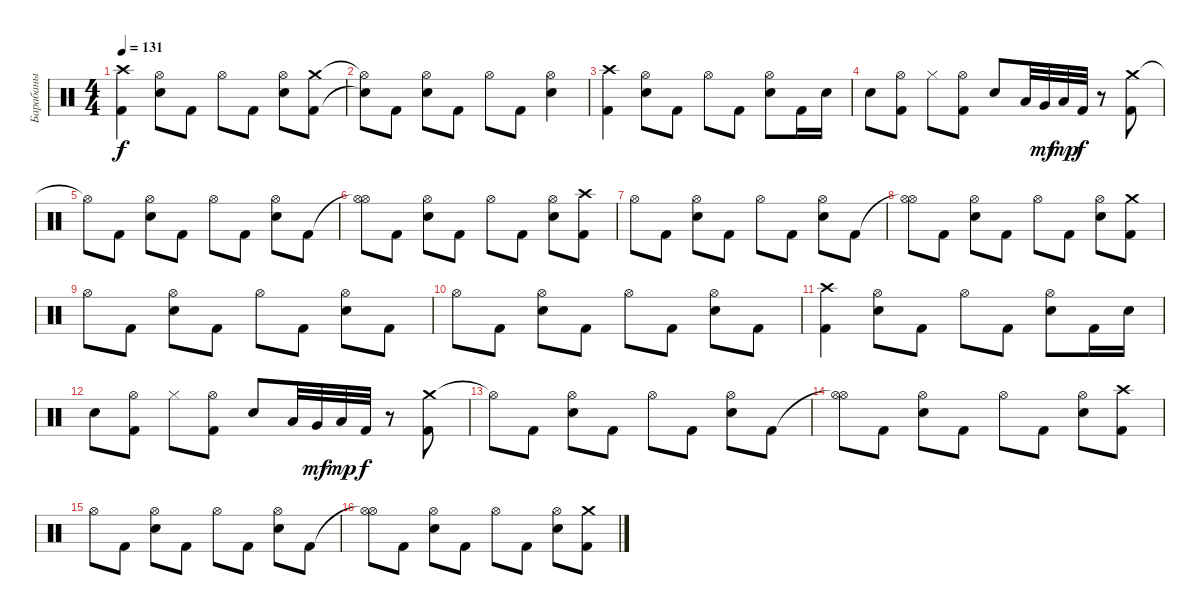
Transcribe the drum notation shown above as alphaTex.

\track ("Барабаны" "Барабаны") {instrument percussion}
\staff {score}
\articulation defaults
\ts (4 4)
\tempo 131
\clef neutral
\ks c
("Crash high (hit)" "Kick (hit) 2").4{dy f} ("Hi-Hat (open)" "Snare (hit) 2").8 "Kick (hit) 2".8 "Hi-Hat (open)".8 "Kick (hit) 2".8 ("Hi-Hat (open)" "Snare (hit) 2").8 ("Crash medium (hit)" "Kick (hit) 2").8 |
("Hi-Hat (open)"{t} "Snare (hit)"{t}).8 "Kick (hit) 2".8 ("Snare (hit) 2" "Hi-Hat (open)").8 "Kick (hit) 2".8 "Hi-Hat (open)".8 "Kick (hit) 2".8 ("Hi-Hat (open)" "Snare (hit) 2").4 |
("Crash high (hit)" "Kick (hit) 2").4 ("Hi-Hat (open)" "Snare (hit) 2").8 "Kick (hit) 2".8 "Hi-Hat (open)".8 "Kick (hit) 2".8 ("Hi-Hat (open)" "Snare (hit) 2").8 "Kick (hit) 2".16 "Snare (hit) 2".16 |
"Snare (hit) 2".8 ("Hi-Hat (open)" "Kick (hit) 2").8 "Hi-Hat (closed)".8 ("Hi-Hat (open)" "Kick (hit) 2").8 "Electric Snare (hit)".8 "Low Tom (hit)".32 "Very Low Tom (hit)".32{dy mf} "Low Floor Tom (hit)".32{dy mp} "Kick (hit) 2".32{dy f} r.8 ("Crash medium (hit)" "Kick (hit) 2").8 |
"Hi-Hat (open)"{t}.8 "Kick (hit) 2".8 ("Snare (hit) 2" "Hi-Hat (open)").8 "Kick (hit) 2".8 "Hi-Hat (open)".8 "Kick (hit) 2".8 ("Hi-Hat (open)" "Snare (hit) 2").8 "Kick (hit) 2".8 |
("Hi-Hat (open)"{t} "Hi-Hat (open)").8 "Kick (hit) 2".8 ("Snare (hit) 2" "Hi-Hat (open)").8 "Kick (hit) 2".8 "Hi-Hat (open)".8 "Kick (hit) 2".8 ("Hi-Hat (open)" "Snare (hit) 2").8 ("Crash high (hit)" "Kick (hit) 2").8 |
"Hi-Hat (open)".8 "Kick (hit) 2".8 ("Snare (hit) 2" "Hi-Hat (open)").8 "Kick (hit) 2".8 "Hi-Hat (open)".8 "Kick (hit) 2".8 ("Hi-Hat (open)" "Snare (hit) 2").8 "Kick (hit) 2".8 |
("Hi-Hat (open)"{t} "Hi-Hat (open)").8 "Kick (hit) 2".8 ("Snare (hit) 2" "Hi-Hat (open)").8 "Kick (hit) 2".8 "Hi-Hat (open)".8 "Kick (hit) 2".8 ("Hi-Hat (open)" "Snare (hit) 2").8 ("Crash medium (hit)" "Kick (hit) 2").8 |
"Hi-Hat (open)".8 "Kick (hit) 2".8 ("Snare (hit) 2" "Hi-Hat (open)").8 "Kick (hit) 2".8 "Hi-Hat (open)".8 "Kick (hit) 2".8 ("Hi-Hat (open)" "Snare (hit) 2").8 "Kick (hit) 2".8 |
"Hi-Hat (open)".8 "Kick (hit) 2".8 ("Snare (hit) 2" "Hi-Hat (open)").8 "Kick (hit) 2".8 "Hi-Hat (open)".8 "Kick (hit) 2".8 ("Hi-Hat (open)" "Snare (hit) 2").8 "Kick (hit) 2".8 |
("Crash high (hit)" "Kick (hit) 2").4 ("Hi-Hat (open)" "Snare (hit) 2").8 "Kick (hit) 2".8 "Hi-Hat (open)".8 "Kick (hit) 2".8 ("Hi-Hat (open)" "Snare (hit) 2").8 "Kick (hit) 2".16 "Snare (hit) 2".16 |
"Snare (hit) 2".8 ("Hi-Hat (open)" "Kick (hit) 2").8 "Hi-Hat (closed)".8 ("Hi-Hat (open)" "Kick (hit) 2").8 "Electric Snare (hit)".8 "Low Tom (hit)".32 "Very Low Tom (hit)".32{dy mf} "Low Floor Tom (hit)".32{dy mp} "Kick (hit) 2".32{dy f} r.8 ("Crash medium (hit)" "Kick (hit) 2").8 |
"Hi-Hat (open)"{t}.8 "Kick (hit) 2".8 ("Snare (hit) 2" "Hi-Hat (open)").8 "Kick (hit) 2".8 "Hi-Hat (open)".8 "Kick (hit) 2".8 ("Hi-Hat (open)" "Snare (hit) 2").8 "Kick (hit) 2".8 |
("Hi-Hat (open)"{t} "Hi-Hat (open)").8 "Kick (hit) 2".8 ("Snare (hit) 2" "Hi-Hat (open)").8 "Kick (hit) 2".8 "Hi-Hat (open)".8 "Kick (hit) 2".8 ("Hi-Hat (open)" "Snare (hit) 2").8 ("Crash high (hit)" "Kick (hit) 2").8 |
"Hi-Hat (open)".8 "Kick (hit) 2".8 ("Snare (hit) 2" "Hi-Hat (open)").8 "Kick (hit) 2".8 "Hi-Hat (open)".8 "Kick (hit) 2".8 ("Hi-Hat (open)" "Snare (hit) 2").8 "Kick (hit) 2".8 |
("Hi-Hat (open)"{t} "Hi-Hat (open)").8 "Kick (hit) 2".8 ("Snare (hit) 2" "Hi-Hat (open)").8 "Kick (hit) 2".8 "Hi-Hat (open)".8 "Kick (hit) 2".8 ("Hi-Hat (open)" "Snare (hit) 2").8 ("Crash medium (hit)" "Kick (hit) 2").8
